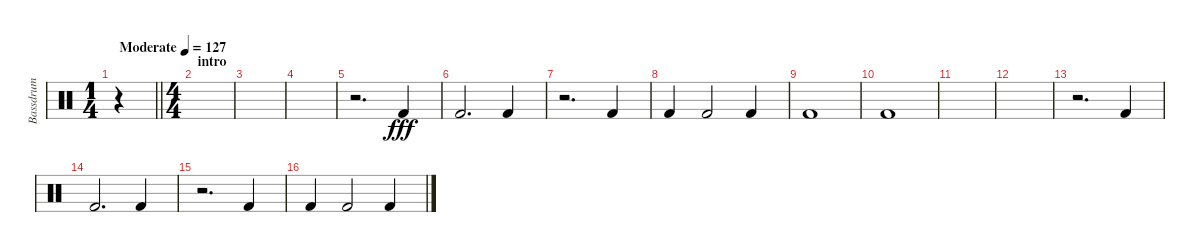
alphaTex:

\track ("Bassdrum" "Bassdrum") {instrument percussion}
\staff {score}
\articulation defaults
\ts (1 4)
\tempo (127 "Moderate")
\clef neutral
\barLineRight lightlight
\ks c
r.4{dy fff volume 16} |
\ts (4 4)
\section ("" "intro")
|
|
|
r.2{d} "Kick (hit) 2".4 |
"Kick (hit) 2".2{d} "Kick (hit) 2".4 |
r.2{d} "Kick (hit) 2".4 |
"Kick (hit) 2".4 "Kick (hit) 2".2 "Kick (hit) 2".4 |
"Kick (hit) 2".1 |
"Kick (hit) 2".1 |
|
|
r.2{d} "Kick (hit) 2".4 |
"Kick (hit) 2".2{d} "Kick (hit) 2".4 |
r.2{d} "Kick (hit) 2".4 |
"Kick (hit) 2".4 "Kick (hit) 2".2 "Kick (hit) 2".4
